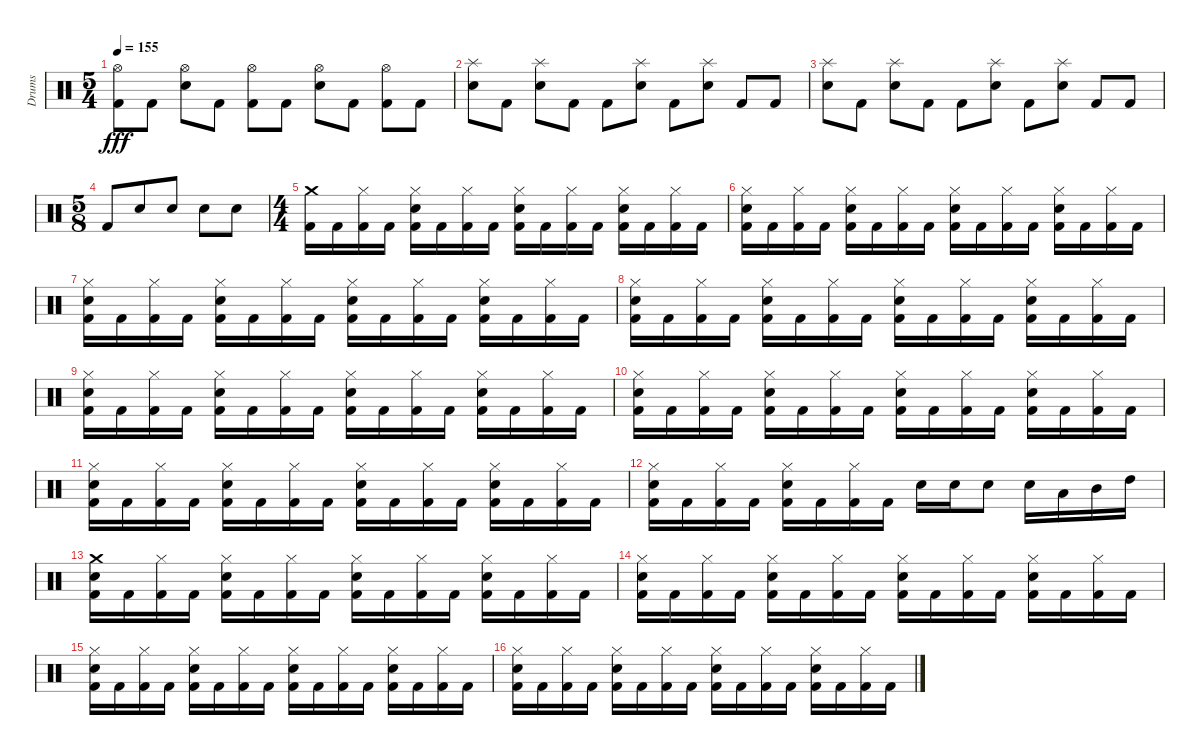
\track ("Drums" "Drums") {instrument percussion}
\staff {score}
\articulation defaults
\ts (5 4)
\tempo 155
\clef neutral
\ks c
("Hi-Hat (open)" "Kick (hit) 2").8{dy fff} "Kick (hit) 2".8 ("Electric Snare (hit)" "Hi-Hat (open)").8 "Kick (hit) 2".8 ("Hi-Hat (open)" "Kick (hit) 2").8 "Kick (hit) 2".8 ("Electric Snare (hit)" "Hi-Hat (open)").8 "Kick (hit) 2".8 ("Hi-Hat (open)" "Kick (hit) 2").8 "Kick (hit) 2".8 |
("Electric Snare (hit)" "Splash (hit)").8 "Kick (hit) 2".8 ("Electric Snare (hit)" "Splash (hit)").8 "Kick (hit) 2".8 "Kick (hit) 2".8 ("Electric Snare (hit)" "Splash (hit)").8 "Kick (hit) 2".8 ("Electric Snare (hit)" "Splash (hit)").8 "Kick (hit) 2".8 "Kick (hit) 2".8 |
("Electric Snare (hit)" "Splash (hit)").8 "Kick (hit) 2".8 ("Electric Snare (hit)" "Splash (hit)").8 "Kick (hit) 2".8 "Kick (hit) 2".8 ("Electric Snare (hit)" "Splash (hit)").8 "Kick (hit) 2".8 ("Electric Snare (hit)" "Splash (hit)").8 "Kick (hit) 2".8 "Kick (hit) 2".8 |
\ts (5 8)
"Kick (hit) 2".8 "Electric Snare (hit)".8 "Electric Snare (hit)".8 "Electric Snare (hit)".8 "Electric Snare (hit)".8 |
\ts (4 4)
("Crash medium (hit)" "Kick (hit) 2").16 "Kick (hit) 2".16 ("Hi-Hat (closed)" "Kick (hit) 2").16 "Kick (hit) 2".16 ("Electric Snare (hit)" "Hi-Hat (closed)" "Kick (hit) 2").16 "Kick (hit) 2".16 ("Hi-Hat (closed)" "Kick (hit) 2").16 "Kick (hit) 2".16 ("Electric Snare (hit)" "Hi-Hat (closed)" "Kick (hit) 2").16 "Kick (hit) 2".16 ("Hi-Hat (closed)" "Kick (hit) 2").16 "Kick (hit) 2".16 ("Electric Snare (hit)" "Hi-Hat (closed)" "Kick (hit) 2").16 "Kick (hit) 2".16 ("Hi-Hat (closed)" "Kick (hit) 2").16 "Kick (hit) 2".16 |
("Electric Snare (hit)" "Hi-Hat (closed)" "Kick (hit) 2").16 "Kick (hit) 2".16 ("Hi-Hat (closed)" "Kick (hit) 2").16 "Kick (hit) 2".16 ("Electric Snare (hit)" "Hi-Hat (closed)" "Kick (hit) 2").16 "Kick (hit) 2".16 ("Hi-Hat (closed)" "Kick (hit) 2").16 "Kick (hit) 2".16 ("Electric Snare (hit)" "Hi-Hat (closed)" "Kick (hit) 2").16 "Kick (hit) 2".16 ("Hi-Hat (closed)" "Kick (hit) 2").16 "Kick (hit) 2".16 ("Electric Snare (hit)" "Hi-Hat (closed)" "Kick (hit) 2").16 "Kick (hit) 2".16 ("Hi-Hat (closed)" "Kick (hit) 2").16 "Kick (hit) 2".16 |
("Electric Snare (hit)" "Hi-Hat (closed)" "Kick (hit) 2").16 "Kick (hit) 2".16 ("Hi-Hat (closed)" "Kick (hit) 2").16 "Kick (hit) 2".16 ("Electric Snare (hit)" "Hi-Hat (closed)" "Kick (hit) 2").16 "Kick (hit) 2".16 ("Hi-Hat (closed)" "Kick (hit) 2").16 "Kick (hit) 2".16 ("Electric Snare (hit)" "Hi-Hat (closed)" "Kick (hit) 2").16 "Kick (hit) 2".16 ("Hi-Hat (closed)" "Kick (hit) 2").16 "Kick (hit) 2".16 ("Electric Snare (hit)" "Hi-Hat (closed)" "Kick (hit) 2").16 "Kick (hit) 2".16 ("Hi-Hat (closed)" "Kick (hit) 2").16 "Kick (hit) 2".16 |
("Electric Snare (hit)" "Hi-Hat (closed)" "Kick (hit) 2").16 "Kick (hit) 2".16 ("Hi-Hat (closed)" "Kick (hit) 2").16 "Kick (hit) 2".16 ("Electric Snare (hit)" "Hi-Hat (closed)" "Kick (hit) 2").16 "Kick (hit) 2".16 ("Hi-Hat (closed)" "Kick (hit) 2").16 "Kick (hit) 2".16 ("Electric Snare (hit)" "Hi-Hat (closed)" "Kick (hit) 2").16 "Kick (hit) 2".16 ("Hi-Hat (closed)" "Kick (hit) 2").16 "Kick (hit) 2".16 ("Electric Snare (hit)" "Hi-Hat (closed)" "Kick (hit) 2").16 "Kick (hit) 2".16 ("Hi-Hat (closed)" "Kick (hit) 2").16 "Kick (hit) 2".16 |
("Electric Snare (hit)" "Hi-Hat (closed)" "Kick (hit) 2").16 "Kick (hit) 2".16 ("Hi-Hat (closed)" "Kick (hit) 2").16 "Kick (hit) 2".16 ("Electric Snare (hit)" "Hi-Hat (closed)" "Kick (hit) 2").16 "Kick (hit) 2".16 ("Hi-Hat (closed)" "Kick (hit) 2").16 "Kick (hit) 2".16 ("Electric Snare (hit)" "Hi-Hat (closed)" "Kick (hit) 2").16 "Kick (hit) 2".16 ("Hi-Hat (closed)" "Kick (hit) 2").16 "Kick (hit) 2".16 ("Electric Snare (hit)" "Hi-Hat (closed)" "Kick (hit) 2").16 "Kick (hit) 2".16 ("Hi-Hat (closed)" "Kick (hit) 2").16 "Kick (hit) 2".16 |
("Electric Snare (hit)" "Hi-Hat (closed)" "Kick (hit) 2").16 "Kick (hit) 2".16 ("Hi-Hat (closed)" "Kick (hit) 2").16 "Kick (hit) 2".16 ("Electric Snare (hit)" "Hi-Hat (closed)" "Kick (hit) 2").16 "Kick (hit) 2".16 ("Hi-Hat (closed)" "Kick (hit) 2").16 "Kick (hit) 2".16 ("Electric Snare (hit)" "Hi-Hat (closed)" "Kick (hit) 2").16 "Kick (hit) 2".16 ("Hi-Hat (closed)" "Kick (hit) 2").16 "Kick (hit) 2".16 ("Electric Snare (hit)" "Hi-Hat (closed)" "Kick (hit) 2").16 "Kick (hit) 2".16 ("Hi-Hat (closed)" "Kick (hit) 2").16 "Kick (hit) 2".16 |
("Electric Snare (hit)" "Hi-Hat (closed)" "Kick (hit) 2").16 "Kick (hit) 2".16 ("Hi-Hat (closed)" "Kick (hit) 2").16 "Kick (hit) 2".16 ("Electric Snare (hit)" "Hi-Hat (closed)" "Kick (hit) 2").16 "Kick (hit) 2".16 ("Hi-Hat (closed)" "Kick (hit) 2").16 "Kick (hit) 2".16 ("Electric Snare (hit)" "Hi-Hat (closed)" "Kick (hit) 2").16 "Kick (hit) 2".16 ("Hi-Hat (closed)" "Kick (hit) 2").16 "Kick (hit) 2".16 ("Electric Snare (hit)" "Hi-Hat (closed)" "Kick (hit) 2").16 "Kick (hit) 2".16 ("Hi-Hat (closed)" "Kick (hit) 2").16 "Kick (hit) 2".16 |
("Electric Snare (hit)" "Hi-Hat (closed)" "Kick (hit) 2").16 "Kick (hit) 2".16 ("Hi-Hat (closed)" "Kick (hit) 2").16 "Kick (hit) 2".16 ("Electric Snare (hit)" "Hi-Hat (closed)" "Kick (hit) 2").16 "Kick (hit) 2".16 ("Hi-Hat (closed)" "Kick (hit) 2").16 "Kick (hit) 2".16 "Electric Snare (hit)".16 "Electric Snare (hit)".16 "Electric Snare (hit)".8 "Electric Snare (hit)".16 "Low Tom (hit)".16 "Mid Tom (hit)".16 "High Tom (hit)".16 |
("Electric Snare (hit)" "Crash medium (hit)" "Kick (hit) 2").16 "Kick (hit) 2".16 ("Hi-Hat (closed)" "Kick (hit) 2").16 "Kick (hit) 2".16 ("Electric Snare (hit)" "Hi-Hat (closed)" "Kick (hit) 2").16 "Kick (hit) 2".16 ("Hi-Hat (closed)" "Kick (hit) 2").16 "Kick (hit) 2".16 ("Electric Snare (hit)" "Hi-Hat (closed)" "Kick (hit) 2").16 "Kick (hit) 2".16 ("Hi-Hat (closed)" "Kick (hit) 2").16 "Kick (hit) 2".16 ("Electric Snare (hit)" "Hi-Hat (closed)" "Kick (hit) 2").16 "Kick (hit) 2".16 ("Hi-Hat (closed)" "Kick (hit) 2").16 "Kick (hit) 2".16 |
("Electric Snare (hit)" "Hi-Hat (closed)" "Kick (hit) 2").16 "Kick (hit) 2".16 ("Hi-Hat (closed)" "Kick (hit) 2").16 "Kick (hit) 2".16 ("Electric Snare (hit)" "Hi-Hat (closed)" "Kick (hit) 2").16 "Kick (hit) 2".16 ("Hi-Hat (closed)" "Kick (hit) 2").16 "Kick (hit) 2".16 ("Electric Snare (hit)" "Hi-Hat (closed)" "Kick (hit) 2").16 "Kick (hit) 2".16 ("Hi-Hat (closed)" "Kick (hit) 2").16 "Kick (hit) 2".16 ("Electric Snare (hit)" "Hi-Hat (closed)" "Kick (hit) 2").16 "Kick (hit) 2".16 ("Hi-Hat (closed)" "Kick (hit) 2").16 "Kick (hit) 2".16 |
("Electric Snare (hit)" "Hi-Hat (closed)" "Kick (hit) 2").16 "Kick (hit) 2".16 ("Hi-Hat (closed)" "Kick (hit) 2").16 "Kick (hit) 2".16 ("Electric Snare (hit)" "Hi-Hat (closed)" "Kick (hit) 2").16 "Kick (hit) 2".16 ("Hi-Hat (closed)" "Kick (hit) 2").16 "Kick (hit) 2".16 ("Electric Snare (hit)" "Hi-Hat (closed)" "Kick (hit) 2").16 "Kick (hit) 2".16 ("Hi-Hat (closed)" "Kick (hit) 2").16 "Kick (hit) 2".16 ("Electric Snare (hit)" "Hi-Hat (closed)" "Kick (hit) 2").16 "Kick (hit) 2".16 ("Hi-Hat (closed)" "Kick (hit) 2").16 "Kick (hit) 2".16 |
("Electric Snare (hit)" "Hi-Hat (closed)" "Kick (hit) 2").16 "Kick (hit) 2".16 ("Hi-Hat (closed)" "Kick (hit) 2").16 "Kick (hit) 2".16 ("Electric Snare (hit)" "Hi-Hat (closed)" "Kick (hit) 2").16 "Kick (hit) 2".16 ("Hi-Hat (closed)" "Kick (hit) 2").16 "Kick (hit) 2".16 ("Electric Snare (hit)" "Hi-Hat (closed)" "Kick (hit) 2").16 "Kick (hit) 2".16 ("Hi-Hat (closed)" "Kick (hit) 2").16 "Kick (hit) 2".16 ("Electric Snare (hit)" "Hi-Hat (closed)" "Kick (hit) 2").16 "Kick (hit) 2".16 ("Hi-Hat (closed)" "Kick (hit) 2").16 "Kick (hit) 2".16
